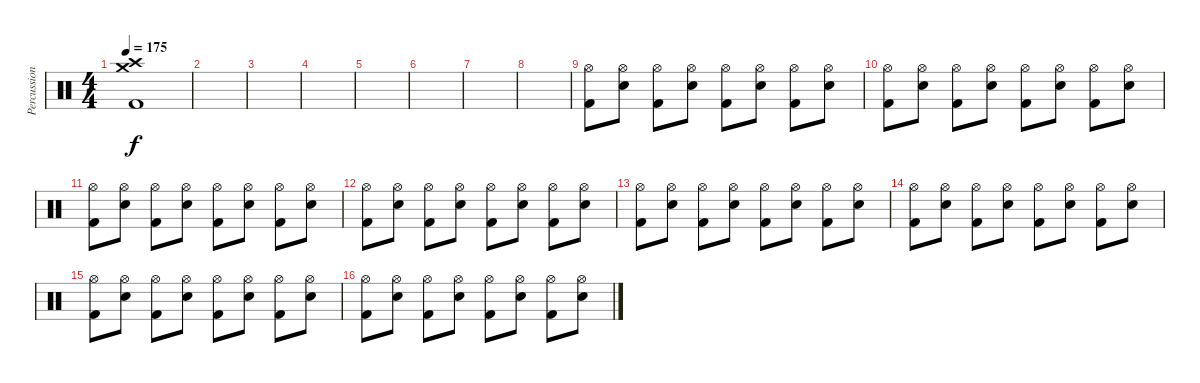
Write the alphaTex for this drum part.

\track ("Percussion" "Percussion") {instrument percussion}
\staff {score}
\articulation defaults
\ts (4 4)
\tempo 175
\clef neutral
\ks c
("Crash medium (hit)" "Crash high (hit)" "Kick (hit) 2").1{dy f} |
|
|
|
|
|
|
|
("Hi-Hat (open)" "Kick (hit) 2").8 ("Hi-Hat (open)" "Electric Snare (hit)").8 ("Hi-Hat (open)" "Kick (hit) 2").8 ("Hi-Hat (open)" "Electric Snare (hit)").8 ("Hi-Hat (open)" "Kick (hit) 2").8 ("Hi-Hat (open)" "Electric Snare (hit)").8 ("Hi-Hat (open)" "Kick (hit) 2").8 ("Hi-Hat (open)" "Electric Snare (hit)").8 |
("Hi-Hat (open)" "Kick (hit) 2").8 ("Hi-Hat (open)" "Electric Snare (hit)").8 ("Hi-Hat (open)" "Kick (hit) 2").8 ("Hi-Hat (open)" "Electric Snare (hit)").8 ("Hi-Hat (open)" "Kick (hit) 2").8 ("Hi-Hat (open)" "Electric Snare (hit)").8 ("Hi-Hat (open)" "Kick (hit) 2").8 ("Hi-Hat (open)" "Electric Snare (hit)").8 |
("Hi-Hat (open)" "Kick (hit) 2").8 ("Hi-Hat (open)" "Electric Snare (hit)").8 ("Hi-Hat (open)" "Kick (hit) 2").8 ("Hi-Hat (open)" "Electric Snare (hit)").8 ("Hi-Hat (open)" "Kick (hit) 2").8 ("Hi-Hat (open)" "Electric Snare (hit)").8 ("Hi-Hat (open)" "Kick (hit) 2").8 ("Hi-Hat (open)" "Electric Snare (hit)").8 |
("Hi-Hat (open)" "Kick (hit) 2").8 ("Hi-Hat (open)" "Electric Snare (hit)").8 ("Hi-Hat (open)" "Kick (hit) 2").8 ("Hi-Hat (open)" "Electric Snare (hit)").8 ("Hi-Hat (open)" "Kick (hit) 2").8 ("Hi-Hat (open)" "Electric Snare (hit)").8 ("Hi-Hat (open)" "Kick (hit) 2").8 ("Hi-Hat (open)" "Electric Snare (hit)").8 |
("Hi-Hat (open)" "Kick (hit) 2").8 ("Hi-Hat (open)" "Electric Snare (hit)").8 ("Hi-Hat (open)" "Kick (hit) 2").8 ("Hi-Hat (open)" "Electric Snare (hit)").8 ("Hi-Hat (open)" "Kick (hit) 2").8 ("Hi-Hat (open)" "Electric Snare (hit)").8 ("Hi-Hat (open)" "Kick (hit) 2").8 ("Hi-Hat (open)" "Electric Snare (hit)").8 |
("Hi-Hat (open)" "Kick (hit) 2").8 ("Hi-Hat (open)" "Electric Snare (hit)").8 ("Hi-Hat (open)" "Kick (hit) 2").8 ("Hi-Hat (open)" "Electric Snare (hit)").8 ("Hi-Hat (open)" "Kick (hit) 2").8 ("Hi-Hat (open)" "Electric Snare (hit)").8 ("Hi-Hat (open)" "Kick (hit) 2").8 ("Hi-Hat (open)" "Electric Snare (hit)").8 |
("Hi-Hat (open)" "Kick (hit) 2").8 ("Hi-Hat (open)" "Electric Snare (hit)").8 ("Hi-Hat (open)" "Kick (hit) 2").8 ("Hi-Hat (open)" "Electric Snare (hit)").8 ("Hi-Hat (open)" "Kick (hit) 2").8 ("Hi-Hat (open)" "Electric Snare (hit)").8 ("Hi-Hat (open)" "Kick (hit) 2").8 ("Hi-Hat (open)" "Electric Snare (hit)").8 |
("Hi-Hat (open)" "Kick (hit) 2").8 ("Hi-Hat (open)" "Electric Snare (hit)").8 ("Hi-Hat (open)" "Kick (hit) 2").8 ("Hi-Hat (open)" "Electric Snare (hit)").8 ("Hi-Hat (open)" "Kick (hit) 2").8 ("Hi-Hat (open)" "Electric Snare (hit)").8 ("Hi-Hat (open)" "Kick (hit) 2").8 ("Hi-Hat (open)" "Electric Snare (hit)").8
